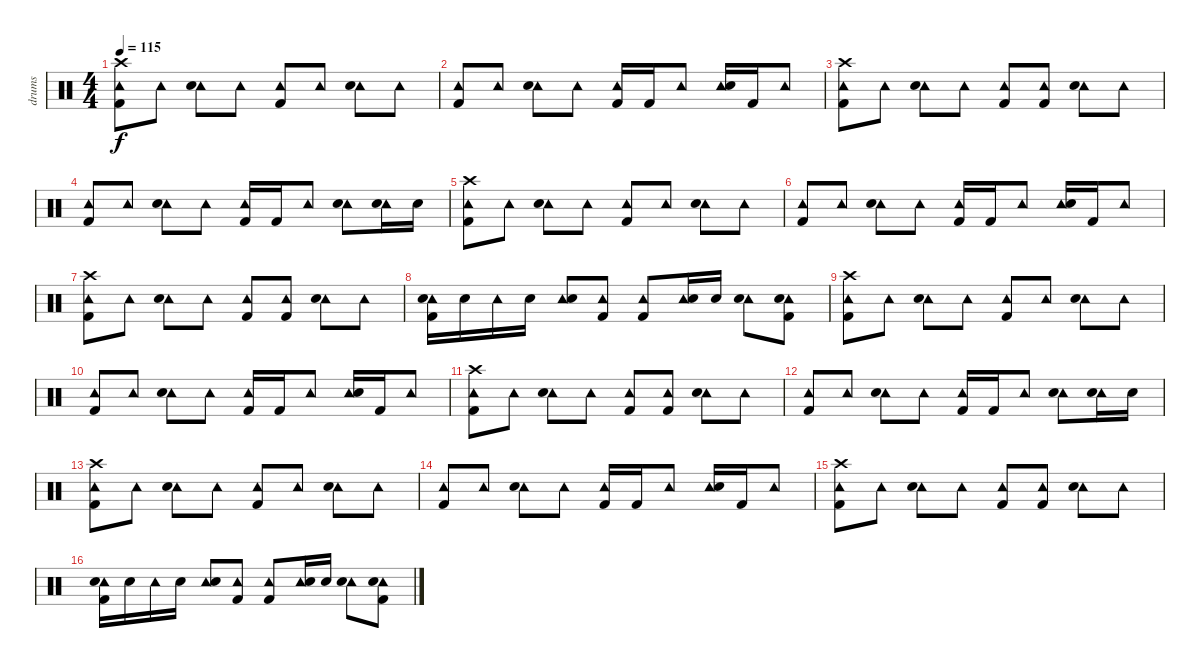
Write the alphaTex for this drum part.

\track ("drums" "drums") {instrument percussion}
\staff {score}
\articulation defaults
\ts (4 4)
\tempo 115
\clef neutral
\ks c
("Crash high (hit)" "Tambourine (hit)" "Kick (hit) 2").8{dy f} "Tambourine (hit)".8 ("Tambourine (hit)" "Snare (hit) 2").8 "Tambourine (hit)".8 ("Tambourine (hit)" "Kick (hit) 2").8 "Tambourine (hit)".8 ("Tambourine (hit)" "Snare (hit) 2").8 "Tambourine (hit)".8 |
("Tambourine (hit)" "Kick (hit) 2").8 "Tambourine (hit)".8 ("Tambourine (hit)" "Snare (hit) 2").8 "Tambourine (hit)".8 ("Tambourine (hit)" "Kick (hit) 2").16 "Kick (hit) 2".16 "Tambourine (hit)".8 ("Tambourine (hit)" "Snare (hit) 2").16 "Kick (hit) 2".16 "Tambourine (hit)".8 |
("Crash high (hit)" "Tambourine (hit)" "Kick (hit) 2").8 "Tambourine (hit)".8 ("Tambourine (hit)" "Snare (hit) 2").8 "Tambourine (hit)".8 ("Tambourine (hit)" "Kick (hit) 2").8 ("Tambourine (hit)" "Kick (hit) 2").8 ("Tambourine (hit)" "Snare (hit) 2").8 "Tambourine (hit)".8 |
("Tambourine (hit)" "Kick (hit) 2").8 "Tambourine (hit)".8 ("Tambourine (hit)" "Snare (hit) 2").8 "Tambourine (hit)".8 ("Tambourine (hit)" "Kick (hit) 2").16 "Kick (hit) 2".16 "Tambourine (hit)".8 ("Tambourine (hit)" "Snare (hit) 2").8 ("Tambourine (hit)" "Snare (hit) 2").16 "Snare (hit) 2".16 |
("Crash high (hit)" "Tambourine (hit)" "Kick (hit) 2").8 "Tambourine (hit)".8 ("Tambourine (hit)" "Snare (hit) 2").8 "Tambourine (hit)".8 ("Tambourine (hit)" "Kick (hit) 2").8 "Tambourine (hit)".8 ("Tambourine (hit)" "Snare (hit) 2").8 "Tambourine (hit)".8 |
("Tambourine (hit)" "Kick (hit) 2").8 "Tambourine (hit)".8 ("Tambourine (hit)" "Snare (hit) 2").8 "Tambourine (hit)".8 ("Tambourine (hit)" "Kick (hit) 2").16 "Kick (hit) 2".16 "Tambourine (hit)".8 ("Tambourine (hit)" "Snare (hit) 2").16 "Kick (hit) 2".16 "Tambourine (hit)".8 |
("Crash high (hit)" "Tambourine (hit)" "Kick (hit) 2").8 "Tambourine (hit)".8 ("Tambourine (hit)" "Snare (hit) 2").8 "Tambourine (hit)".8 ("Tambourine (hit)" "Kick (hit) 2").8 ("Tambourine (hit)" "Kick (hit) 2").8 ("Tambourine (hit)" "Snare (hit) 2").8 "Tambourine (hit)".8 |
("Tambourine (hit)" "Snare (hit) 2" "Kick (hit) 2").16 "Snare (hit) 2".16 "Tambourine (hit)".16 "Snare (hit) 2".16 ("Tambourine (hit)" "Snare (hit) 2").8 ("Tambourine (hit)" "Kick (hit) 2").8 ("Tambourine (hit)" "Kick (hit) 2").8 ("Tambourine (hit)" "Snare (hit) 2").16 "Snare (hit) 2".16 ("Tambourine (hit)" "Snare (hit) 2").8 ("Tambourine (hit)" "Snare (hit) 2" "Kick (hit) 2").8 |
("Crash high (hit)" "Tambourine (hit)" "Kick (hit) 2").8 "Tambourine (hit)".8 ("Tambourine (hit)" "Snare (hit) 2").8 "Tambourine (hit)".8 ("Tambourine (hit)" "Kick (hit) 2").8 "Tambourine (hit)".8 ("Tambourine (hit)" "Snare (hit) 2").8 "Tambourine (hit)".8 |
("Tambourine (hit)" "Kick (hit) 2").8 "Tambourine (hit)".8 ("Tambourine (hit)" "Snare (hit) 2").8 "Tambourine (hit)".8 ("Tambourine (hit)" "Kick (hit) 2").16 "Kick (hit) 2".16 "Tambourine (hit)".8 ("Tambourine (hit)" "Snare (hit) 2").16 "Kick (hit) 2".16 "Tambourine (hit)".8 |
("Crash high (hit)" "Tambourine (hit)" "Kick (hit) 2").8 "Tambourine (hit)".8 ("Tambourine (hit)" "Snare (hit) 2").8 "Tambourine (hit)".8 ("Tambourine (hit)" "Kick (hit) 2").8 ("Tambourine (hit)" "Kick (hit) 2").8 ("Tambourine (hit)" "Snare (hit) 2").8 "Tambourine (hit)".8 |
("Tambourine (hit)" "Kick (hit) 2").8 "Tambourine (hit)".8 ("Tambourine (hit)" "Snare (hit) 2").8 "Tambourine (hit)".8 ("Tambourine (hit)" "Kick (hit) 2").16 "Kick (hit) 2".16 "Tambourine (hit)".8 ("Tambourine (hit)" "Snare (hit) 2").8 ("Tambourine (hit)" "Snare (hit) 2").16 "Snare (hit) 2".16 |
("Crash high (hit)" "Tambourine (hit)" "Kick (hit) 2").8 "Tambourine (hit)".8 ("Tambourine (hit)" "Snare (hit) 2").8 "Tambourine (hit)".8 ("Tambourine (hit)" "Kick (hit) 2").8 "Tambourine (hit)".8 ("Tambourine (hit)" "Snare (hit) 2").8 "Tambourine (hit)".8 |
("Tambourine (hit)" "Kick (hit) 2").8 "Tambourine (hit)".8 ("Tambourine (hit)" "Snare (hit) 2").8 "Tambourine (hit)".8 ("Tambourine (hit)" "Kick (hit) 2").16 "Kick (hit) 2".16 "Tambourine (hit)".8 ("Tambourine (hit)" "Snare (hit) 2").16 "Kick (hit) 2".16 "Tambourine (hit)".8 |
("Crash high (hit)" "Tambourine (hit)" "Kick (hit) 2").8 "Tambourine (hit)".8 ("Tambourine (hit)" "Snare (hit) 2").8 "Tambourine (hit)".8 ("Tambourine (hit)" "Kick (hit) 2").8 ("Tambourine (hit)" "Kick (hit) 2").8 ("Tambourine (hit)" "Snare (hit) 2").8 "Tambourine (hit)".8 |
("Tambourine (hit)" "Snare (hit) 2" "Kick (hit) 2").16 "Snare (hit) 2".16 "Tambourine (hit)".16 "Snare (hit) 2".16 ("Tambourine (hit)" "Snare (hit) 2").8 ("Tambourine (hit)" "Kick (hit) 2").8 ("Tambourine (hit)" "Kick (hit) 2").8 ("Tambourine (hit)" "Snare (hit) 2").16 "Snare (hit) 2".16 ("Tambourine (hit)" "Snare (hit) 2").8 ("Tambourine (hit)" "Snare (hit) 2" "Kick (hit) 2").8
